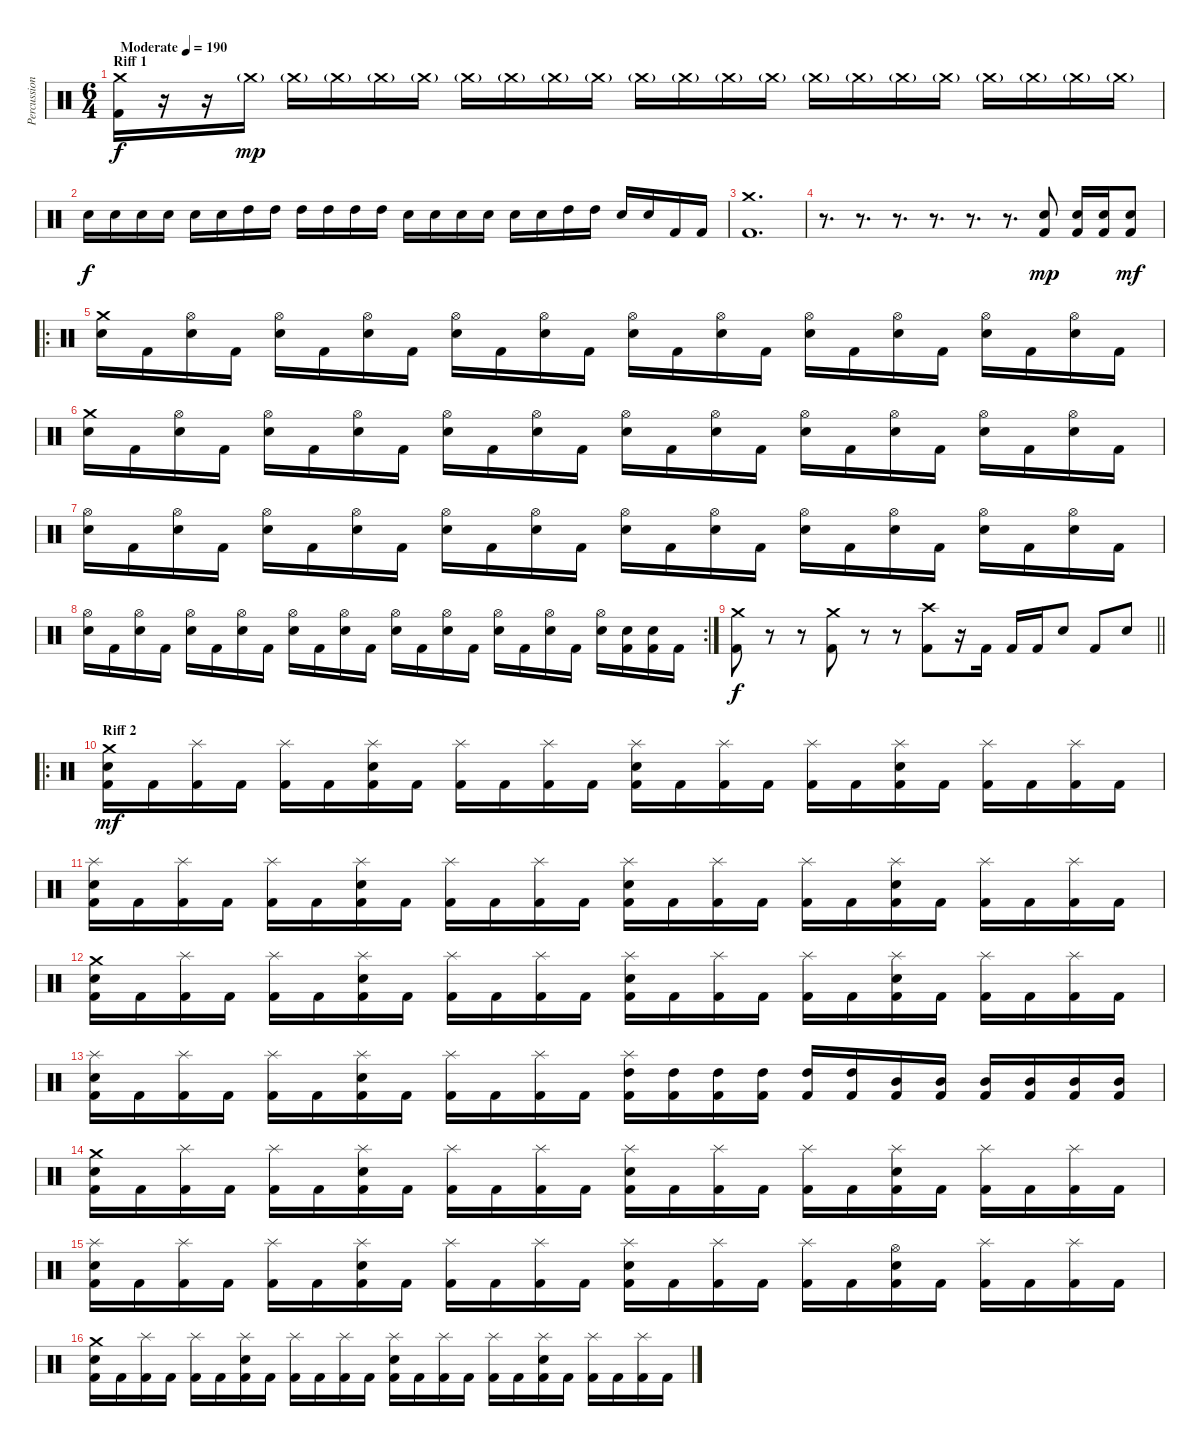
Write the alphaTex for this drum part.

\track ("Percussions" "Percussion") {instrument percussion}
\staff {score}
\articulation defaults
\ts (6 4)
\section ("" "Riff 1")
\tempo (190 "Moderate")
\clef neutral
\ks c
("Crash medium (hit)" "Kick (hit) 2").16{dy f} r.16 r.16 "Crash medium (hit)"{g}.16{dy mp} "Crash medium (hit)"{g}.16 "Crash medium (hit)"{g}.16 "Crash medium (hit)"{g}.16 "Crash medium (hit)"{g}.16 "Crash medium (hit)"{g}.16 "Crash medium (hit)"{g}.16 "Crash medium (hit)"{g}.16 "Crash medium (hit)"{g}.16 "Crash medium (hit)"{g}.16 "Crash medium (hit)"{g}.16 "Crash medium (hit)"{g}.16 "Crash medium (hit)"{g}.16 "Crash medium (hit)"{g}.16 "Crash medium (hit)"{g}.16 "Crash medium (hit)"{g}.16 "Crash medium (hit)"{g}.16 "Crash medium (hit)"{g}.16 "Crash medium (hit)"{g}.16 "Crash medium (hit)"{g}.16 "Crash medium (hit)"{g}.16 |
"Electric Snare (hit)".16{dy f} "Electric Snare (hit)".16 "Electric Snare (hit)".16 "Electric Snare (hit)".16 "Electric Snare (hit)".16 "Electric Snare (hit)".16 "High Tom (hit)".16 "High Tom (hit)".16 "High Tom (hit)".16 "High Tom (hit)".16 "High Tom (hit)".16 "High Tom (hit)".16 "Electric Snare (hit)".16 "Electric Snare (hit)".16 "Electric Snare (hit)".16 "Electric Snare (hit)".16 "Electric Snare (hit)".16 "Electric Snare (hit)".16 "High Tom (hit)".16 "High Tom (hit)".16 "Electric Snare (hit)".16 "Electric Snare (hit)".16 "Kick (hit) 2".16 "Kick (hit) 2".16 |
("Crash medium (hit)" "Kick (hit) 2").1{d} |
r.8{d} r.8{d} r.8{d} r.8{d} r.8{d} r.8{d} ("Electric Snare (hit)" "Kick (hit) 2").8{dy mp} ("Electric Snare (hit)" "Kick (hit) 2").16 ("Electric Snare (hit)" "Kick (hit) 2").16 ("Electric Snare (hit)" "Kick (hit) 2").8{dy mf} |
\ro
("Crash medium (hit)" "Electric Snare (hit)").16 "Kick (hit) 2".16 ("Hi-Hat (open)" "Electric Snare (hit)").16 "Kick (hit) 2".16 ("Hi-Hat (open)" "Electric Snare (hit)").16 "Kick (hit) 2".16 ("Hi-Hat (open)" "Electric Snare (hit)").16 "Kick (hit) 2".16 ("Hi-Hat (open)" "Electric Snare (hit)").16 "Kick (hit) 2".16 ("Hi-Hat (open)" "Electric Snare (hit)").16 "Kick (hit) 2".16 ("Hi-Hat (open)" "Electric Snare (hit)").16 "Kick (hit) 2".16 ("Hi-Hat (open)" "Electric Snare (hit)").16 "Kick (hit) 2".16 ("Hi-Hat (open)" "Electric Snare (hit)").16 "Kick (hit) 2".16 ("Hi-Hat (open)" "Electric Snare (hit)").16 "Kick (hit) 2".16 ("Hi-Hat (open)" "Electric Snare (hit)").16 "Kick (hit) 2".16 ("Hi-Hat (open)" "Electric Snare (hit)").16 "Kick (hit) 2".16 |
("Crash medium (hit)" "Electric Snare (hit)").16 "Kick (hit) 2".16 ("Hi-Hat (open)" "Electric Snare (hit)").16 "Kick (hit) 2".16 ("Hi-Hat (open)" "Electric Snare (hit)").16 "Kick (hit) 2".16 ("Hi-Hat (open)" "Electric Snare (hit)").16 "Kick (hit) 2".16 ("Hi-Hat (open)" "Electric Snare (hit)").16 "Kick (hit) 2".16 ("Hi-Hat (open)" "Electric Snare (hit)").16 "Kick (hit) 2".16 ("Hi-Hat (open)" "Electric Snare (hit)").16 "Kick (hit) 2".16 ("Hi-Hat (open)" "Electric Snare (hit)").16 "Kick (hit) 2".16 ("Hi-Hat (open)" "Electric Snare (hit)").16 "Kick (hit) 2".16 ("Hi-Hat (open)" "Electric Snare (hit)").16 "Kick (hit) 2".16 ("Hi-Hat (open)" "Electric Snare (hit)").16 "Kick (hit) 2".16 ("Hi-Hat (open)" "Electric Snare (hit)").16 "Kick (hit) 2".16 |
("Hi-Hat (open)" "Electric Snare (hit)").16 "Kick (hit) 2".16 ("Hi-Hat (open)" "Electric Snare (hit)").16 "Kick (hit) 2".16 ("Hi-Hat (open)" "Electric Snare (hit)").16 "Kick (hit) 2".16 ("Hi-Hat (open)" "Electric Snare (hit)").16 "Kick (hit) 2".16 ("Hi-Hat (open)" "Electric Snare (hit)").16 "Kick (hit) 2".16 ("Hi-Hat (open)" "Electric Snare (hit)").16 "Kick (hit) 2".16 ("Hi-Hat (open)" "Electric Snare (hit)").16 "Kick (hit) 2".16 ("Hi-Hat (open)" "Electric Snare (hit)").16 "Kick (hit) 2".16 ("Hi-Hat (open)" "Electric Snare (hit)").16 "Kick (hit) 2".16 ("Hi-Hat (open)" "Electric Snare (hit)").16 "Kick (hit) 2".16 ("Hi-Hat (open)" "Electric Snare (hit)").16 "Kick (hit) 2".16 ("Hi-Hat (open)" "Electric Snare (hit)").16 "Kick (hit) 2".16 |
\rc 2
("Hi-Hat (open)" "Electric Snare (hit)").16 "Kick (hit) 2".16 ("Hi-Hat (open)" "Electric Snare (hit)").16 "Kick (hit) 2".16 ("Hi-Hat (open)" "Electric Snare (hit)").16 "Kick (hit) 2".16 ("Hi-Hat (open)" "Electric Snare (hit)").16 "Kick (hit) 2".16 ("Hi-Hat (open)" "Electric Snare (hit)").16 "Kick (hit) 2".16 ("Hi-Hat (open)" "Electric Snare (hit)").16 "Kick (hit) 2".16 ("Hi-Hat (open)" "Electric Snare (hit)").16 "Kick (hit) 2".16 ("Hi-Hat (open)" "Electric Snare (hit)").16 "Kick (hit) 2".16 ("Hi-Hat (open)" "Electric Snare (hit)").16 "Kick (hit) 2".16 ("Hi-Hat (open)" "Electric Snare (hit)").16 "Kick (hit) 2".16 ("Hi-Hat (open)" "Electric Snare (hit)").16 ("Electric Snare (hit)" "Kick (hit) 2").16 ("Electric Snare (hit)" "Kick (hit) 2").16 "Kick (hit) 2".16 |
\barLineRight lightlight
("Crash medium (hit)" "Kick (hit) 2").8{dy f} r.8 r.8 ("Crash medium (hit)" "Kick (hit) 2").8 r.8 r.8 ("Crash high (hit)" "Kick (hit) 2").8 r.16 "Kick (hit) 2".16 "Kick (hit) 2".16 "Kick (hit) 2".16 "Electric Snare (hit)".8 "Kick (hit) 2".8 "Electric Snare (hit)".8 |
\ro
\section ("" "Riff 2")
("Crash medium (hit)" "Electric Snare (hit)" "Kick (hit) 2").16{dy mf} "Kick (hit) 2".16 ("Splash (hit)" "Kick (hit) 2").16 "Kick (hit) 2".16 ("Splash (hit)" "Kick (hit) 2").16 "Kick (hit) 2".16 ("Splash (hit)" "Electric Snare (hit)" "Kick (hit) 2").16 "Kick (hit) 2".16 ("Splash (hit)" "Kick (hit) 2").16 "Kick (hit) 2".16 ("Splash (hit)" "Kick (hit) 2").16 "Kick (hit) 2".16 ("Splash (hit)" "Electric Snare (hit)" "Kick (hit) 2").16 "Kick (hit) 2".16 ("Splash (hit)" "Kick (hit) 2").16 "Kick (hit) 2".16 ("Splash (hit)" "Kick (hit) 2").16 "Kick (hit) 2".16 ("Splash (hit)" "Electric Snare (hit)" "Kick (hit) 2").16 "Kick (hit) 2".16 ("Splash (hit)" "Kick (hit) 2").16 "Kick (hit) 2".16 ("Splash (hit)" "Kick (hit) 2").16 "Kick (hit) 2".16 |
("Splash (hit)" "Electric Snare (hit)" "Kick (hit) 2").16 "Kick (hit) 2".16 ("Splash (hit)" "Kick (hit) 2").16 "Kick (hit) 2".16 ("Splash (hit)" "Kick (hit) 2").16 "Kick (hit) 2".16 ("Splash (hit)" "Electric Snare (hit)" "Kick (hit) 2").16 "Kick (hit) 2".16 ("Splash (hit)" "Kick (hit) 2").16 "Kick (hit) 2".16 ("Splash (hit)" "Kick (hit) 2").16 "Kick (hit) 2".16 ("Splash (hit)" "Electric Snare (hit)" "Kick (hit) 2").16 "Kick (hit) 2".16 ("Splash (hit)" "Kick (hit) 2").16 "Kick (hit) 2".16 ("Splash (hit)" "Kick (hit) 2").16 "Kick (hit) 2".16 ("Splash (hit)" "Electric Snare (hit)" "Kick (hit) 2").16 "Kick (hit) 2".16 ("Splash (hit)" "Kick (hit) 2").16 "Kick (hit) 2".16 ("Splash (hit)" "Kick (hit) 2").16 "Kick (hit) 2".16 |
("Crash medium (hit)" "Electric Snare (hit)" "Kick (hit) 2").16 "Kick (hit) 2".16 ("Splash (hit)" "Kick (hit) 2").16 "Kick (hit) 2".16 ("Splash (hit)" "Kick (hit) 2").16 "Kick (hit) 2".16 ("Splash (hit)" "Electric Snare (hit)" "Kick (hit) 2").16 "Kick (hit) 2".16 ("Splash (hit)" "Kick (hit) 2").16 "Kick (hit) 2".16 ("Splash (hit)" "Kick (hit) 2").16 "Kick (hit) 2".16 ("Splash (hit)" "Electric Snare (hit)" "Kick (hit) 2").16 "Kick (hit) 2".16 ("Splash (hit)" "Kick (hit) 2").16 "Kick (hit) 2".16 ("Splash (hit)" "Kick (hit) 2").16 "Kick (hit) 2".16 ("Splash (hit)" "Electric Snare (hit)" "Kick (hit) 2").16 "Kick (hit) 2".16 ("Splash (hit)" "Kick (hit) 2").16 "Kick (hit) 2".16 ("Splash (hit)" "Kick (hit) 2").16 "Kick (hit) 2".16 |
("Splash (hit)" "Electric Snare (hit)" "Kick (hit) 2").16 "Kick (hit) 2".16 ("Splash (hit)" "Kick (hit) 2").16 "Kick (hit) 2".16 ("Splash (hit)" "Kick (hit) 2").16 "Kick (hit) 2".16 ("Splash (hit)" "Electric Snare (hit)" "Kick (hit) 2").16 "Kick (hit) 2".16 ("Splash (hit)" "Kick (hit) 2").16 "Kick (hit) 2".16 ("Splash (hit)" "Kick (hit) 2").16 "Kick (hit) 2".16 ("Splash (hit)" "High Tom (hit)" "Kick (hit) 2").16 ("High Tom (hit)" "Kick (hit) 2").16 ("High Tom (hit)" "Kick (hit) 2").16 ("High Tom (hit)" "Kick (hit) 2").16 ("High Tom (hit)" "Kick (hit) 2").16 ("High Tom (hit)" "Kick (hit) 2").16 ("Mid Tom (hit)" "Kick (hit) 2").16 ("Mid Tom (hit)" "Kick (hit) 2").16 ("Mid Tom (hit)" "Kick (hit) 2").16 ("Mid Tom (hit)" "Kick (hit) 2").16 ("Mid Tom (hit)" "Kick (hit) 2").16 ("Mid Tom (hit)" "Kick (hit) 2").16 |
("Crash medium (hit)" "Electric Snare (hit)" "Kick (hit) 2").16 "Kick (hit) 2".16 ("Splash (hit)" "Kick (hit) 2").16 "Kick (hit) 2".16 ("Splash (hit)" "Kick (hit) 2").16 "Kick (hit) 2".16 ("Splash (hit)" "Electric Snare (hit)" "Kick (hit) 2").16 "Kick (hit) 2".16 ("Splash (hit)" "Kick (hit) 2").16 "Kick (hit) 2".16 ("Splash (hit)" "Kick (hit) 2").16 "Kick (hit) 2".16 ("Splash (hit)" "Electric Snare (hit)" "Kick (hit) 2").16 "Kick (hit) 2".16 ("Splash (hit)" "Kick (hit) 2").16 "Kick (hit) 2".16 ("Splash (hit)" "Kick (hit) 2").16 "Kick (hit) 2".16 ("Splash (hit)" "Electric Snare (hit)" "Kick (hit) 2").16 "Kick (hit) 2".16 ("Splash (hit)" "Kick (hit) 2").16 "Kick (hit) 2".16 ("Splash (hit)" "Kick (hit) 2").16 "Kick (hit) 2".16 |
("Splash (hit)" "Electric Snare (hit)" "Kick (hit) 2").16 "Kick (hit) 2".16 ("Splash (hit)" "Kick (hit) 2").16 "Kick (hit) 2".16 ("Splash (hit)" "Kick (hit) 2").16 "Kick (hit) 2".16 ("Splash (hit)" "Electric Snare (hit)" "Kick (hit) 2").16 "Kick (hit) 2".16 ("Splash (hit)" "Kick (hit) 2").16 "Kick (hit) 2".16 ("Splash (hit)" "Kick (hit) 2").16 "Kick (hit) 2".16 ("Splash (hit)" "Electric Snare (hit)" "Kick (hit) 2").16 "Kick (hit) 2".16 ("Splash (hit)" "Kick (hit) 2").16 "Kick (hit) 2".16 ("Splash (hit)" "Kick (hit) 2").16 "Kick (hit) 2".16 ("Hi-Hat (open)" "Electric Snare (hit)" "Kick (hit) 2").16 "Kick (hit) 2".16 ("Splash (hit)" "Kick (hit) 2").16 "Kick (hit) 2".16 ("Splash (hit)" "Kick (hit) 2").16 "Kick (hit) 2".16 |
("Crash medium (hit)" "Electric Snare (hit)" "Kick (hit) 2").16 "Kick (hit) 2".16 ("Splash (hit)" "Kick (hit) 2").16 "Kick (hit) 2".16 ("Splash (hit)" "Kick (hit) 2").16 "Kick (hit) 2".16 ("Splash (hit)" "Electric Snare (hit)" "Kick (hit) 2").16 "Kick (hit) 2".16 ("Splash (hit)" "Kick (hit) 2").16 "Kick (hit) 2".16 ("Splash (hit)" "Kick (hit) 2").16 "Kick (hit) 2".16 ("Splash (hit)" "Electric Snare (hit)" "Kick (hit) 2").16 "Kick (hit) 2".16 ("Splash (hit)" "Kick (hit) 2").16 "Kick (hit) 2".16 ("Splash (hit)" "Kick (hit) 2").16 "Kick (hit) 2".16 ("Splash (hit)" "Electric Snare (hit)" "Kick (hit) 2").16 "Kick (hit) 2".16 ("Splash (hit)" "Kick (hit) 2").16 "Kick (hit) 2".16 ("Splash (hit)" "Kick (hit) 2").16 "Kick (hit) 2".16
